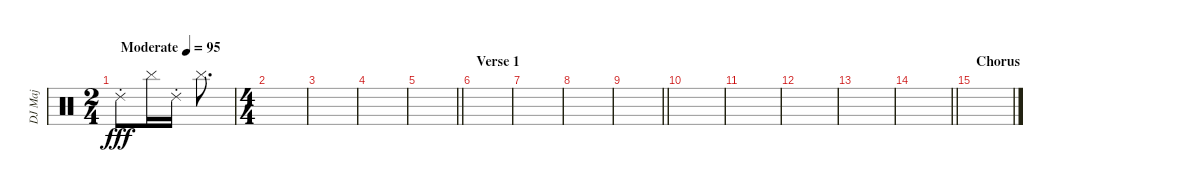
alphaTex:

\track ("DJ Maj" "DJ Maj") {instrument percussion}
\staff {score}
\articulation defaults
\ts (2 4)
\tempo (95 "Moderate")
\clef neutral
\ks c "Ride (choke) 2".8{dy fff} "Cymbal (hit)".16 "Ride (choke) 2".16 "Cymbal (hit)".8{d}
|
\ts (4 4)
|
|
|
\barLineRight lightlight
|
\section ("" "Verse 1")
|
|
|
\barLineRight lightlight
|
|
|
|
|
\barLineRight lightlight
|
\section ("" "Chorus")
